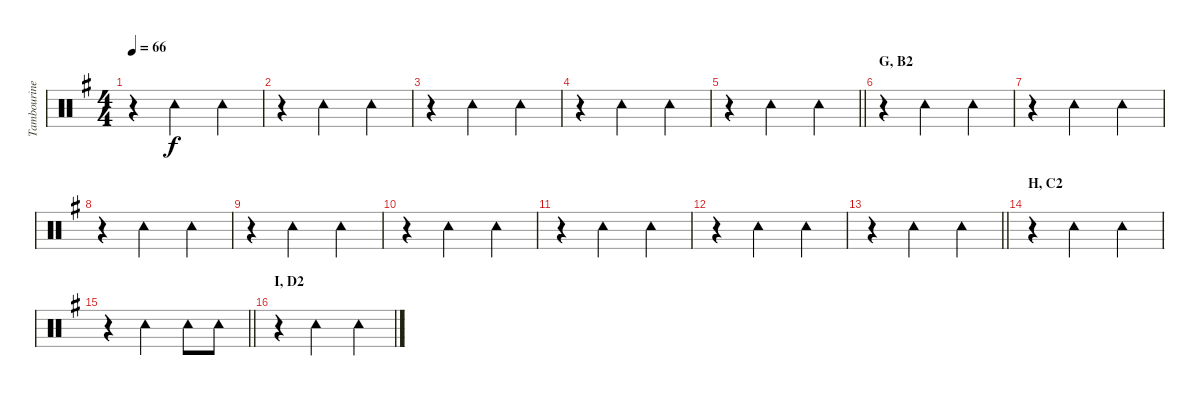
\track ("Tambourine: Ray Copoper" "Tambourine") {instrument percussion}
\staff {score}
\articulation defaults
\ts (4 4)
\tempo 66
\clef neutral
\ks g
r.4{dy f} "Tambourine (hit)".2 "Tambourine (hit)".4 |
r.4 "Tambourine (hit)".2 "Tambourine (hit)".4 |
r.4 "Tambourine (hit)".2 "Tambourine (hit)".4 |
r.4 "Tambourine (hit)".2 "Tambourine (hit)".4 |
\barLineRight lightlight
r.4 "Tambourine (hit)".2 "Tambourine (hit)".4 |
\section ("" "G, B2")
r.4 "Tambourine (hit)".2 "Tambourine (hit)".4 |
r.4 "Tambourine (hit)".2 "Tambourine (hit)".4 |
r.4 "Tambourine (hit)".2 "Tambourine (hit)".4 |
r.4 "Tambourine (hit)".2 "Tambourine (hit)".4 |
r.4 "Tambourine (hit)".2 "Tambourine (hit)".4 |
r.4 "Tambourine (hit)".2 "Tambourine (hit)".4 |
r.4 "Tambourine (hit)".2 "Tambourine (hit)".4 |
\barLineRight lightlight
r.4 "Tambourine (hit)".2 "Tambourine (hit)".4 |
\section ("" "H, C2")
r.4 "Tambourine (hit)".2 "Tambourine (hit)".4 |
\barLineRight lightlight
r.4 "Tambourine (hit)".2{beam merge} "Tambourine (hit)".8{beam merge} "Tambourine (hit)".8 |
\section ("" "I, D2")
r.4 "Tambourine (hit)".2 "Tambourine (hit)".4
